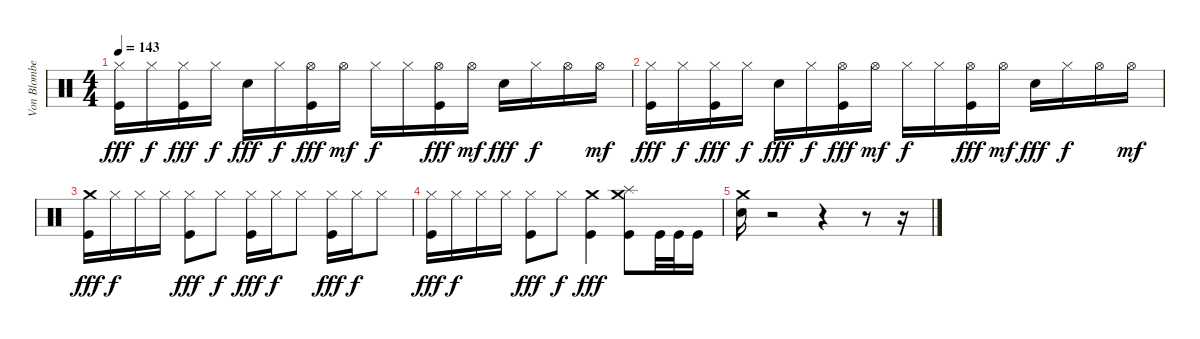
\track ("Von Blomberg" "Von Blombe") {instrument percussion}
\staff {score}
\articulation defaults
\ts (4 4)
\tempo 143
\clef neutral
\ks c
("Hi-Hat (closed)" "Kick (hit)").16{dy fff} "Hi-Hat (closed)".16{dy f} ("Hi-Hat (closed)" "Kick (hit)").16{dy fff} "Hi-Hat (closed)".16{dy f} "Electric Snare (hit)".16{dy fff} "Hi-Hat (closed)".16{dy f} ("Hi-Hat (open)" "Kick (hit)").16{dy fff} "Hi-Hat (open)".16{dy mf} "Hi-Hat (closed)".16{dy f} "Hi-Hat (closed)".16 ("Hi-Hat (open)" "Kick (hit)").16{dy fff} "Hi-Hat (open)".16{dy mf} "Electric Snare (hit)".16{dy fff} "Hi-Hat (closed)".16{dy f} "Hi-Hat (open)".16 "Hi-Hat (open)".16{dy mf} |
("Hi-Hat (closed)" "Kick (hit)").16{dy fff} "Hi-Hat (closed)".16{dy f} ("Hi-Hat (closed)" "Kick (hit)").16{dy fff} "Hi-Hat (closed)".16{dy f} "Electric Snare (hit)".16{dy fff} "Hi-Hat (closed)".16{dy f} ("Hi-Hat (open)" "Kick (hit)").16{dy fff} "Hi-Hat (open)".16{dy mf} "Hi-Hat (closed)".16{dy f} "Hi-Hat (closed)".16 ("Hi-Hat (open)" "Kick (hit)").16{dy fff} "Hi-Hat (open)".16{dy mf} "Electric Snare (hit)".16{dy fff} "Hi-Hat (closed)".16{dy f} "Hi-Hat (open)".16 "Hi-Hat (open)".16{dy mf} |
("Crash medium (hit)" "Kick (hit)").16{dy fff} "Hi-Hat (closed)".16{dy f} "Hi-Hat (closed)".16 "Hi-Hat (closed)".16 ("Hi-Hat (closed)" "Kick (hit)").8{dy fff} "Hi-Hat (closed)".8{dy f} ("Hi-Hat (closed)" "Kick (hit)").16{dy fff} "Hi-Hat (closed)".16{dy f} "Hi-Hat (closed)".8 ("Hi-Hat (closed)" "Kick (hit)").16{dy fff} "Hi-Hat (closed)".16{dy f} "Hi-Hat (closed)".8 |
("Hi-Hat (closed)" "Kick (hit)").16{dy fff} "Hi-Hat (closed)".16{dy f} "Hi-Hat (closed)".16 "Hi-Hat (closed)".16 ("Hi-Hat (closed)" "Kick (hit)").8{dy fff} "Hi-Hat (closed)".8{dy f} ("Crash medium (hit)" "Kick (hit)").4{dy fff} ("Splash (hit)" "Crash medium (hit)" "Kick (hit)").8 "Kick (hit)".32 "Kick (hit)".32 "Kick (hit)".16 |
("Crash medium (hit)" "Electric Snare (hit)").16 r.2 r.4 r.8 r.16
